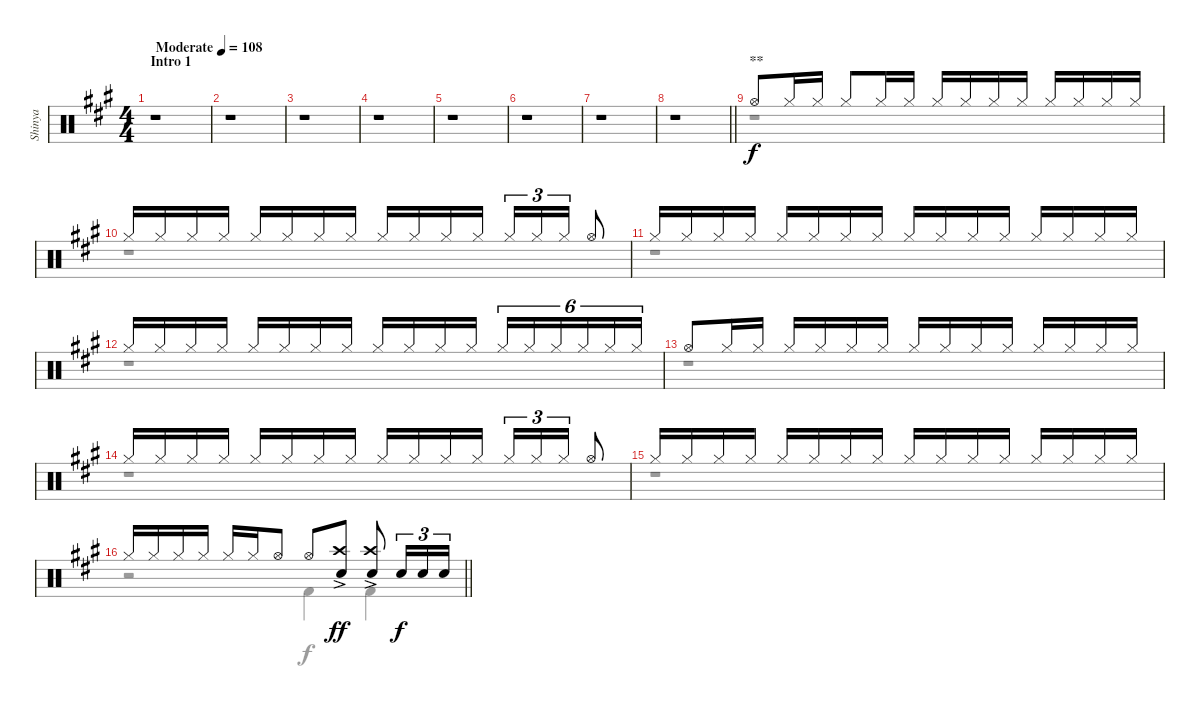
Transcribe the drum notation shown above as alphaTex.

\track ("Shinya" "Shinya") {instrument percussion}
\staff {score}
\articulation defaults
\voice
\ts (4 4)
\section ("" "Intro 1")
\tempo (108 "Moderate")
\clef neutral
\ks f#minor
r.1{dy f} |
r.1 |
r.1 |
r.1 |
r.1 |
r.1 |
r.1 |
\barLineRight lightlight
r.1 |
\section ("" "**")
"Hi-Hat (open)".8 "Hi-Hat (closed)".16 "Hi-Hat (closed)".16 "Hi-Hat (closed)".8 "Hi-Hat (closed)".16 "Hi-Hat (closed)".16 "Hi-Hat (closed)".16 "Hi-Hat (closed)".16 "Hi-Hat (closed)".16 "Hi-Hat (closed)".16 "Hi-Hat (closed)".16 "Hi-Hat (closed)".16 "Hi-Hat (closed)".16 "Hi-Hat (closed)".16 |
"Hi-Hat (closed)".16 "Hi-Hat (closed)".16 "Hi-Hat (closed)".16 "Hi-Hat (closed)".16 "Hi-Hat (closed)".16 "Hi-Hat (closed)".16 "Hi-Hat (closed)".16 "Hi-Hat (closed)".16 "Hi-Hat (closed)".16 "Hi-Hat (closed)".16 "Hi-Hat (closed)".16 "Hi-Hat (closed)".16 "Hi-Hat (closed)".16{tu (3 2)} "Hi-Hat (closed)".16{tu (3 2)} "Hi-Hat (closed)".16{tu (3 2)} "Hi-Hat (open)".8 |
"Hi-Hat (closed)".16 "Hi-Hat (closed)".16 "Hi-Hat (closed)".16 "Hi-Hat (closed)".16 "Hi-Hat (closed)".16 "Hi-Hat (closed)".16 "Hi-Hat (closed)".16 "Hi-Hat (closed)".16 "Hi-Hat (closed)".16 "Hi-Hat (closed)".16 "Hi-Hat (closed)".16 "Hi-Hat (closed)".16 "Hi-Hat (closed)".16 "Hi-Hat (closed)".16 "Hi-Hat (closed)".16 "Hi-Hat (closed)".16 |
"Hi-Hat (closed)".16 "Hi-Hat (closed)".16 "Hi-Hat (closed)".16 "Hi-Hat (closed)".16 "Hi-Hat (closed)".16 "Hi-Hat (closed)".16 "Hi-Hat (closed)".16 "Hi-Hat (closed)".16 "Hi-Hat (closed)".16 "Hi-Hat (closed)".16 "Hi-Hat (closed)".16 "Hi-Hat (closed)".16 "Hi-Hat (closed)".16{tu (6 4)} "Hi-Hat (closed)".16{tu (6 4)} "Hi-Hat (closed)".16{tu (6 4)} "Hi-Hat (closed)".16{tu (6 4)} "Hi-Hat (closed)".16{tu (6 4)} "Hi-Hat (closed)".16{tu (6 4)} |
"Hi-Hat (open)".8 "Hi-Hat (closed)".16 "Hi-Hat (closed)".16 "Hi-Hat (closed)".16 "Hi-Hat (closed)".16 "Hi-Hat (closed)".16 "Hi-Hat (closed)".16 "Hi-Hat (closed)".16 "Hi-Hat (closed)".16 "Hi-Hat (closed)".16 "Hi-Hat (closed)".16 "Hi-Hat (closed)".16 "Hi-Hat (closed)".16 "Hi-Hat (closed)".16 "Hi-Hat (closed)".16 |
"Hi-Hat (closed)".16 "Hi-Hat (closed)".16 "Hi-Hat (closed)".16 "Hi-Hat (closed)".16 "Hi-Hat (closed)".16 "Hi-Hat (closed)".16 "Hi-Hat (closed)".16 "Hi-Hat (closed)".16 "Hi-Hat (closed)".16 "Hi-Hat (closed)".16 "Hi-Hat (closed)".16 "Hi-Hat (closed)".16 "Hi-Hat (closed)".16{tu (3 2)} "Hi-Hat (closed)".16{tu (3 2)} "Hi-Hat (closed)".16{tu (3 2)} "Hi-Hat (open)".8 |
"Hi-Hat (closed)".16 "Hi-Hat (closed)".16 "Hi-Hat (closed)".16 "Hi-Hat (closed)".16 "Hi-Hat (closed)".16 "Hi-Hat (closed)".16 "Hi-Hat (closed)".16 "Hi-Hat (closed)".16 "Hi-Hat (closed)".16 "Hi-Hat (closed)".16 "Hi-Hat (closed)".16 "Hi-Hat (closed)".16 "Hi-Hat (closed)".16 "Hi-Hat (closed)".16 "Hi-Hat (closed)".16 "Hi-Hat (closed)".16 |
\barLineRight lightlight "Hi-Hat (closed)".16 "Hi-Hat (closed)".16 "Hi-Hat (closed)".16 "Hi-Hat (closed)".16 "Hi-Hat (closed)".16 "Hi-Hat (closed)".16 "Hi-Hat (open)".8 "Hi-Hat (open)".8
("Crash high (hit)"{ac} "Snare (hit) 2").8{dy ff} ("Crash high (hit)"{ac} "Snare (hit) 2").8 "Snare (hit) 2".16{tu (3 2) dy f} "Snare (hit) 2".16{tu (3 2)} "Snare (hit) 2".16{tu (3 2)}
\voice
\clef neutral
\ottava regular
\simile none
\ks f#minor
r.1{dy f} |
r.1 |
r.1 |
r.1 |
r.1 |
r.1 |
r.1 |
\barLineRight lightlight
r.1 |
r.1 |
r.1 |
r.1 |
r.1 |
r.1 |
r.1 |
r.1 |
\barLineRight lightlight
r.2 "Kick (hit) 2".4 "Kick (hit) 2".4
